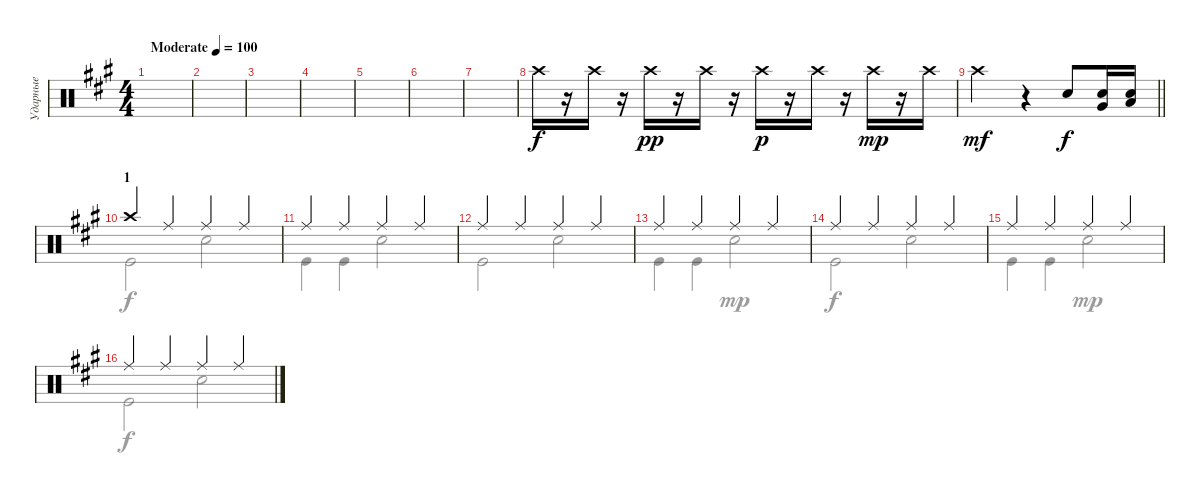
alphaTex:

\track ("Ударные" "Ударные") {instrument percussion}
\staff {score}
\articulation defaults
\voice
\ts (4 4)
\tempo (100 "Moderate")
\clef neutral
\ks f#minor
|
|
|
|
|
|
|
"Crash high (hit)".16 r.16 "Crash high (hit)".16 r.16 "Crash high (hit)".16{dy pp} r.16 "Crash high (hit)".16 r.16 "Crash high (hit)".16{dy p} r.16 "Crash high (hit)".16 r.16 "Crash high (hit)".16{dy mp} r.16 "Crash high (hit)".16 |
\barLineRight lightlight "Crash high (hit)".2{dy mf}
r.4 "Snare (hit) 2".8{dy f} ("Snare (hit) 2" "Very Low Tom (hit)").16 ("Snare (hit) 2" "Low Floor Tom (hit)").16 |
\section ("" "1")
"Crash high (hit)".4 "Ride (middle)".4 "Ride (middle)".4 "Ride (middle)".4 |
"Ride (middle)".4 "Ride (middle)".4 "Ride (middle)".4 "Ride (middle)".4 |
"Ride (middle)".4 "Ride (middle)".4 "Ride (middle)".4 "Ride (middle)".4 |
"Ride (middle)".4 "Ride (middle)".4 "Ride (middle)".4 "Ride (middle)".4 |
"Ride (middle)".4 "Ride (middle)".4 "Ride (middle)".4 "Ride (middle)".4 |
"Ride (middle)".4 "Ride (middle)".4 "Ride (middle)".4 "Ride (middle)".4 |
"Ride (middle)".4 "Ride (middle)".4 "Ride (middle)".4 "Ride (middle)".4
\voice
\clef neutral
\ottava regular
\simile none
\ks f#minor
|
|
|
|
|
|
|
|
\barLineRight lightlight
|
"Kick (hit)".2 "Snare (hit) 2".2 |
"Kick (hit)".4 "Kick (hit)".4 "Snare (hit) 2".2 |
"Kick (hit)".2 "Snare (hit) 2".2 |
"Kick (hit)".4 "Kick (hit)".4 "Snare (hit) 2".2{dy mp} |
"Kick (hit)".2{dy f} "Snare (hit) 2".2 |
"Kick (hit)".4 "Kick (hit)".4 "Snare (hit) 2".2{dy mp} |
"Kick (hit)".2{dy f} "Snare (hit) 2".2
